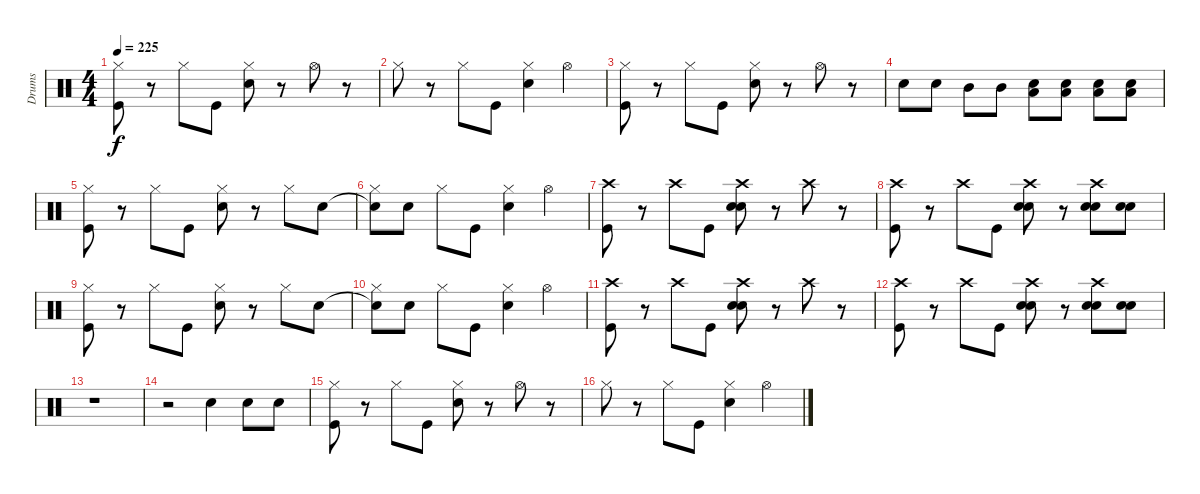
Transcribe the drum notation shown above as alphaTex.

\track ("Drums" "Drums") {instrument percussion}
\staff {score}
\articulation defaults
\ts (4 4)
\tempo 225
\clef neutral
\ks c
("Kick (hit)" "Hi-Hat (closed)").8{dy f} r.8 "Hi-Hat (closed)".8 "Kick (hit)".8 ("Electric Snare (hit)" "Hi-Hat (closed)").8 r.8 "Hi-Hat (open)".8 r.8 |
"Hi-Hat (closed)".8 r.8 "Hi-Hat (closed)".8 "Kick (hit)".8 ("Electric Snare (hit)" "Hi-Hat (closed)").4 "Hi-Hat (open)".4 |
("Kick (hit)" "Hi-Hat (closed)").8 r.8 "Hi-Hat (closed)".8 "Kick (hit)".8 ("Electric Snare (hit)" "Hi-Hat (closed)").8 r.8 "Hi-Hat (open)".8 r.8 |
"Electric Snare (hit)".8 "Electric Snare (hit)".8 "Mid Tom (hit)".8 "Mid Tom (hit)".8 ("Electric Snare (hit)" "Low Floor Tom (hit)").8 ("Electric Snare (hit)" "Low Floor Tom (hit)").8 ("Electric Snare (hit)" "Low Floor Tom (hit)").8 ("Electric Snare (hit)" "Low Floor Tom (hit)").8 |
("Kick (hit)" "Hi-Hat (closed)").8 r.8 "Hi-Hat (closed)".8 "Kick (hit)".8 ("Electric Snare (hit)" "Hi-Hat (closed)").8 r.8 "Hi-Hat (closed)".8 "Electric Snare (hit)".8 |
("Electric Snare (hit)"{t} "Hi-Hat (closed)").8 "Electric Snare (hit)".8 "Hi-Hat (closed)".8 "Kick (hit)".8 ("Electric Snare (hit)" "Hi-Hat (closed)").4 "Hi-Hat (open)".4 |
("Kick (hit)" "Crash high (hit)").8 r.8 "Crash high (hit)".8 "Kick (hit)".8 ("Electric Snare (hit)" "Electric Snare (hit)" "Crash high (hit)").8 r.8 "Crash high (hit)".8 r.8 |
("Kick (hit)" "Crash high (hit)").8 r.8 "Crash high (hit)".8 "Kick (hit)".8 ("Electric Snare (hit)" "Electric Snare (hit)" "Crash high (hit)").8 r.8 ("Electric Snare (hit)" "Electric Snare (hit)" "Crash high (hit)").8 ("Electric Snare (hit)" "Electric Snare (hit)").8 |
("Kick (hit)" "Hi-Hat (closed)").8 r.8 "Hi-Hat (closed)".8 "Kick (hit)".8 ("Electric Snare (hit)" "Hi-Hat (closed)").8 r.8 "Hi-Hat (closed)".8 "Electric Snare (hit)".8 |
("Electric Snare (hit)"{t} "Hi-Hat (closed)").8 "Electric Snare (hit)".8 "Hi-Hat (closed)".8 "Kick (hit)".8 ("Electric Snare (hit)" "Hi-Hat (closed)").4 "Hi-Hat (open)".4 |
("Kick (hit)" "Crash high (hit)").8 r.8 "Crash high (hit)".8 "Kick (hit)".8 ("Electric Snare (hit)" "Electric Snare (hit)" "Crash high (hit)").8 r.8 "Crash high (hit)".8 r.8 |
("Kick (hit)" "Crash high (hit)").8 r.8 "Crash high (hit)".8 "Kick (hit)".8 ("Electric Snare (hit)" "Electric Snare (hit)" "Crash high (hit)").8 r.8 ("Electric Snare (hit)" "Electric Snare (hit)" "Crash high (hit)").8 ("Electric Snare (hit)" "Electric Snare (hit)").8 |
r.1 |
r.2 "Electric Snare (hit)".4 "Snare (hit) 2".8 "Snare (hit) 2".8 |
("Kick (hit)" "Hi-Hat (closed)").8 r.8 "Hi-Hat (closed)".8 "Kick (hit)".8 ("Electric Snare (hit)" "Hi-Hat (closed)").8 r.8 "Hi-Hat (open)".8 r.8 |
"Hi-Hat (closed)".8 r.8 "Hi-Hat (closed)".8 "Kick (hit)".8 ("Electric Snare (hit)" "Hi-Hat (closed)").4 "Hi-Hat (open)".4
